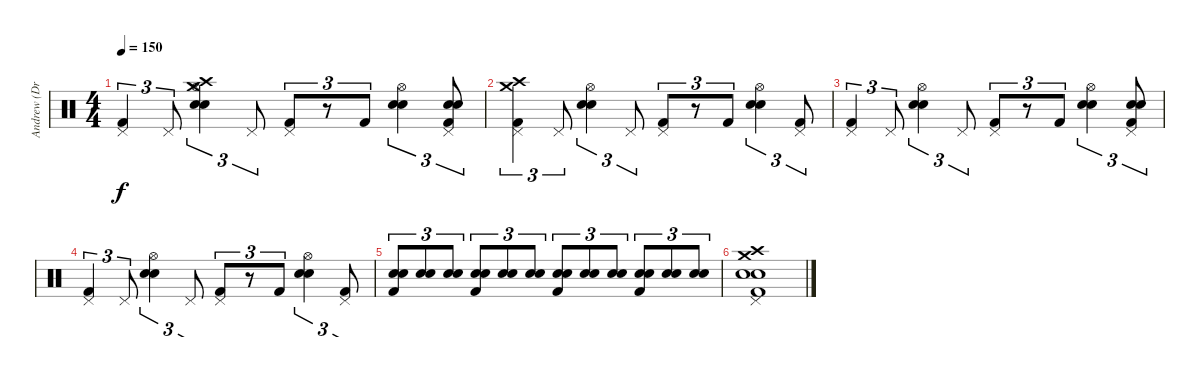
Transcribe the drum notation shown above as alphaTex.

\track ("Andrew (Drums)" "Andrew (Dr") {instrument percussion}
\staff {score}
\articulation defaults
\ts (4 4)
\tempo 150
\clef neutral
\ks c
("Kick (hit) 2" "Pedal Hi-Hat (hit)").4{tu (3 2) dy f} "Pedal Hi-Hat (hit)".8{tu (3 2)} ("Electric Snare (hit)" "Snare (hit) 2" "Hi-Hat (open)" "Crash medium (hit)" "Crash high (hit)").4{tu (3 2)} "Pedal Hi-Hat (hit)".8{tu (3 2)} ("Kick (hit) 2" "Pedal Hi-Hat (hit)").8{tu (3 2)} r.8{tu (3 2)} "Kick (hit) 2".8{tu (3 2)} ("Electric Snare (hit)" "Snare (hit) 2" "Hi-Hat (open)").4{tu (3 2)} ("Kick (hit) 2" "Electric Snare (hit)" "Pedal Hi-Hat (hit)" "Snare (hit) 2").8{tu (3 2)} |
("Kick (hit) 2" "Pedal Hi-Hat (hit)" "Crash medium (hit)" "Crash high (hit)").4{tu (3 2)} "Pedal Hi-Hat (hit)".8{tu (3 2)} ("Electric Snare (hit)" "Snare (hit) 2" "Hi-Hat (open)").4{tu (3 2)} "Pedal Hi-Hat (hit)".8{tu (3 2)} ("Kick (hit) 2" "Pedal Hi-Hat (hit)").8{tu (3 2)} r.8{tu (3 2)} "Kick (hit) 2".8{tu (3 2)} ("Electric Snare (hit)" "Snare (hit) 2" "Hi-Hat (open)").4{tu (3 2)} ("Kick (hit) 2" "Pedal Hi-Hat (hit)").8{tu (3 2)} |
("Kick (hit) 2" "Pedal Hi-Hat (hit)").4{tu (3 2)} "Pedal Hi-Hat (hit)".8{tu (3 2)} ("Electric Snare (hit)" "Snare (hit) 2" "Hi-Hat (open)").4{tu (3 2)} "Pedal Hi-Hat (hit)".8{tu (3 2)} ("Kick (hit) 2" "Pedal Hi-Hat (hit)").8{tu (3 2)} r.8{tu (3 2)} "Kick (hit) 2".8{tu (3 2)} ("Electric Snare (hit)" "Snare (hit) 2" "Hi-Hat (open)").4{tu (3 2)} ("Kick (hit) 2" "Electric Snare (hit)" "Pedal Hi-Hat (hit)" "Snare (hit) 2").8{tu (3 2)} |
("Kick (hit) 2" "Pedal Hi-Hat (hit)").4{tu (3 2)} "Pedal Hi-Hat (hit)".8{tu (3 2)} ("Electric Snare (hit)" "Snare (hit) 2" "Hi-Hat (open)").4{tu (3 2)} "Pedal Hi-Hat (hit)".8{tu (3 2)} ("Kick (hit) 2" "Pedal Hi-Hat (hit)").8{tu (3 2)} r.8{tu (3 2)} "Kick (hit) 2".8{tu (3 2)} ("Electric Snare (hit)" "Snare (hit) 2" "Hi-Hat (open)").4{tu (3 2)} ("Kick (hit) 2" "Pedal Hi-Hat (hit)").8{tu (3 2)} |
("Electric Snare (hit)" "Snare (hit) 2" "Kick (hit) 2").8{tu (3 2)} ("Electric Snare (hit)" "Snare (hit) 2").8{tu (3 2)} ("Electric Snare (hit)" "Snare (hit) 2").8{tu (3 2)} ("Electric Snare (hit)" "Snare (hit) 2" "Kick (hit) 2").8{tu (3 2)} ("Electric Snare (hit)" "Snare (hit) 2").8{tu (3 2)} ("Electric Snare (hit)" "Snare (hit) 2").8{tu (3 2)} ("Electric Snare (hit)" "Snare (hit) 2" "Kick (hit) 2").8{tu (3 2)} ("Electric Snare (hit)" "Snare (hit) 2").8{tu (3 2)} ("Electric Snare (hit)" "Snare (hit) 2").8{tu (3 2)} ("Electric Snare (hit)" "Snare (hit) 2" "Kick (hit) 2").8{tu (3 2)} ("Electric Snare (hit)" "Snare (hit) 2").8{tu (3 2)} ("Electric Snare (hit)" "Snare (hit) 2").8{tu (3 2)} |
("Kick (hit) 2" "Electric Snare (hit)" "Snare (hit) 2" "Crash medium (hit)" "Crash high (hit)" "Pedal Hi-Hat (hit)").1
